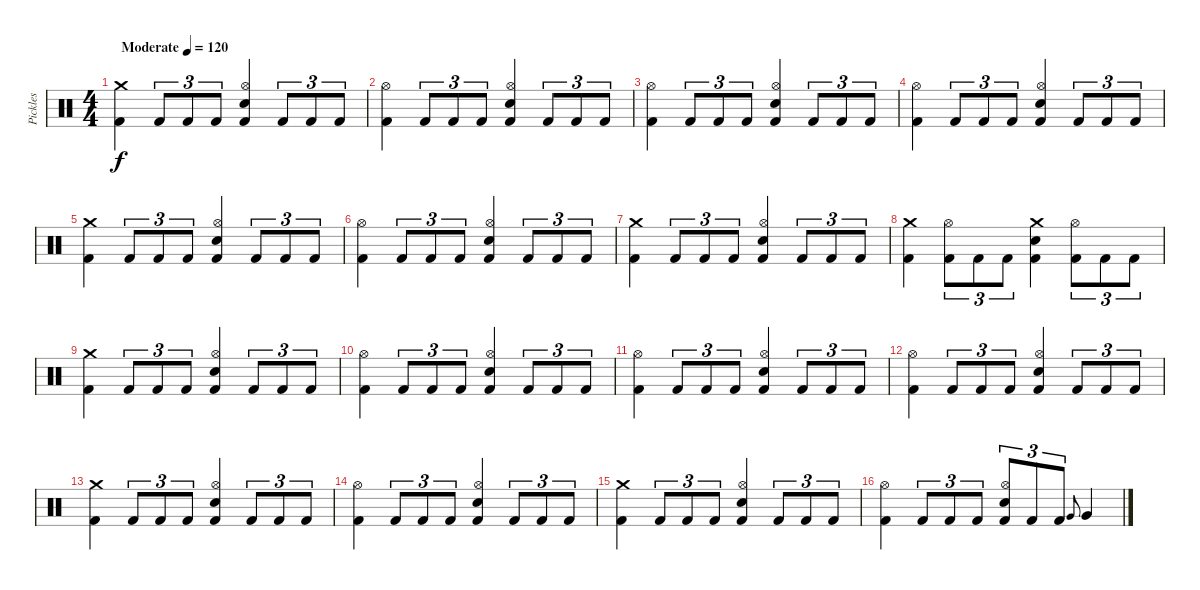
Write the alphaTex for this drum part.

\track ("Pickles" "Pickles") {instrument percussion}
\staff {score}
\articulation defaults
\ts (4 4)
\tempo (120 "Moderate")
\clef neutral
\ks c
("Crash medium (hit)" "Kick (hit) 2").4{dy f} "Kick (hit) 2".8{tu (3 2)} "Kick (hit) 2".8{tu (3 2)} "Kick (hit) 2".8{tu (3 2)} ("Hi-Hat (open)" "Electric Snare (hit)" "Kick (hit) 2").4 "Kick (hit) 2".8{tu (3 2)} "Kick (hit) 2".8{tu (3 2)} "Kick (hit) 2".8{tu (3 2)} |
("Hi-Hat (open)" "Kick (hit) 2").4 "Kick (hit) 2".8{tu (3 2)} "Kick (hit) 2".8{tu (3 2)} "Kick (hit) 2".8{tu (3 2)} ("Hi-Hat (open)" "Electric Snare (hit)" "Kick (hit) 2").4 "Kick (hit) 2".8{tu (3 2)} "Kick (hit) 2".8{tu (3 2)} "Kick (hit) 2".8{tu (3 2)} |
("Hi-Hat (open)" "Kick (hit) 2").4 "Kick (hit) 2".8{tu (3 2)} "Kick (hit) 2".8{tu (3 2)} "Kick (hit) 2".8{tu (3 2)} ("Hi-Hat (open)" "Electric Snare (hit)" "Kick (hit) 2").4 "Kick (hit) 2".8{tu (3 2)} "Kick (hit) 2".8{tu (3 2)} "Kick (hit) 2".8{tu (3 2)} |
("Hi-Hat (open)" "Kick (hit) 2").4 "Kick (hit) 2".8{tu (3 2)} "Kick (hit) 2".8{tu (3 2)} "Kick (hit) 2".8{tu (3 2)} ("Hi-Hat (open)" "Electric Snare (hit)" "Kick (hit) 2").4 "Kick (hit) 2".8{tu (3 2)} "Kick (hit) 2".8{tu (3 2)} "Kick (hit) 2".8{tu (3 2)} |
("Crash medium (hit)" "Kick (hit) 2").4 "Kick (hit) 2".8{tu (3 2)} "Kick (hit) 2".8{tu (3 2)} "Kick (hit) 2".8{tu (3 2)} ("Hi-Hat (open)" "Electric Snare (hit)" "Kick (hit) 2").4 "Kick (hit) 2".8{tu (3 2)} "Kick (hit) 2".8{tu (3 2)} "Kick (hit) 2".8{tu (3 2)} |
("Hi-Hat (open)" "Kick (hit) 2").4 "Kick (hit) 2".8{tu (3 2)} "Kick (hit) 2".8{tu (3 2)} "Kick (hit) 2".8{tu (3 2)} ("Hi-Hat (open)" "Electric Snare (hit)" "Kick (hit) 2").4 "Kick (hit) 2".8{tu (3 2)} "Kick (hit) 2".8{tu (3 2)} "Kick (hit) 2".8{tu (3 2)} |
("Crash medium (hit)" "Kick (hit) 2").4 "Kick (hit) 2".8{tu (3 2)} "Kick (hit) 2".8{tu (3 2)} "Kick (hit) 2".8{tu (3 2)} ("Hi-Hat (open)" "Electric Snare (hit)" "Kick (hit) 2").4 "Kick (hit) 2".8{tu (3 2)} "Kick (hit) 2".8{tu (3 2)} "Kick (hit) 2".8{tu (3 2)} |
("Crash medium (hit)" "Kick (hit) 2").4 ("Hi-Hat (open)" "Kick (hit) 2").8{tu (3 2)} "Kick (hit) 2".8{tu (3 2)} "Kick (hit) 2".8{tu (3 2)} ("Crash medium (hit)" "Electric Snare (hit)" "Kick (hit) 2").4 ("Hi-Hat (open)" "Kick (hit) 2").8{tu (3 2)} "Kick (hit) 2".8{tu (3 2)} "Kick (hit) 2".8{tu (3 2)} |
("Crash medium (hit)" "Kick (hit) 2").4 "Kick (hit) 2".8{tu (3 2)} "Kick (hit) 2".8{tu (3 2)} "Kick (hit) 2".8{tu (3 2)} ("Hi-Hat (open)" "Electric Snare (hit)" "Kick (hit) 2").4 "Kick (hit) 2".8{tu (3 2)} "Kick (hit) 2".8{tu (3 2)} "Kick (hit) 2".8{tu (3 2)} |
("Hi-Hat (open)" "Kick (hit) 2").4 "Kick (hit) 2".8{tu (3 2)} "Kick (hit) 2".8{tu (3 2)} "Kick (hit) 2".8{tu (3 2)} ("Hi-Hat (open)" "Electric Snare (hit)" "Kick (hit) 2").4 "Kick (hit) 2".8{tu (3 2)} "Kick (hit) 2".8{tu (3 2)} "Kick (hit) 2".8{tu (3 2)} |
("Hi-Hat (open)" "Kick (hit) 2").4 "Kick (hit) 2".8{tu (3 2)} "Kick (hit) 2".8{tu (3 2)} "Kick (hit) 2".8{tu (3 2)} ("Hi-Hat (open)" "Electric Snare (hit)" "Kick (hit) 2").4 "Kick (hit) 2".8{tu (3 2)} "Kick (hit) 2".8{tu (3 2)} "Kick (hit) 2".8{tu (3 2)} |
("Hi-Hat (open)" "Kick (hit) 2").4 "Kick (hit) 2".8{tu (3 2)} "Kick (hit) 2".8{tu (3 2)} "Kick (hit) 2".8{tu (3 2)} ("Hi-Hat (open)" "Electric Snare (hit)" "Kick (hit) 2").4 "Kick (hit) 2".8{tu (3 2)} "Kick (hit) 2".8{tu (3 2)} "Kick (hit) 2".8{tu (3 2)} |
("Crash medium (hit)" "Kick (hit) 2").4 "Kick (hit) 2".8{tu (3 2)} "Kick (hit) 2".8{tu (3 2)} "Kick (hit) 2".8{tu (3 2)} ("Hi-Hat (open)" "Electric Snare (hit)" "Kick (hit) 2").4 "Kick (hit) 2".8{tu (3 2)} "Kick (hit) 2".8{tu (3 2)} "Kick (hit) 2".8{tu (3 2)} |
("Hi-Hat (open)" "Kick (hit) 2").4 "Kick (hit) 2".8{tu (3 2)} "Kick (hit) 2".8{tu (3 2)} "Kick (hit) 2".8{tu (3 2)} ("Hi-Hat (open)" "Electric Snare (hit)" "Kick (hit) 2").4 "Kick (hit) 2".8{tu (3 2)} "Kick (hit) 2".8{tu (3 2)} "Kick (hit) 2".8{tu (3 2)} |
("Crash medium (hit)" "Kick (hit) 2").4 "Kick (hit) 2".8{tu (3 2)} "Kick (hit) 2".8{tu (3 2)} "Kick (hit) 2".8{tu (3 2)} ("Hi-Hat (open)" "Electric Snare (hit)" "Kick (hit) 2").4 "Kick (hit) 2".8{tu (3 2)} "Kick (hit) 2".8{tu (3 2)} "Kick (hit) 2".8{tu (3 2)} |
("Hi-Hat (open)" "Kick (hit) 2").4 "Kick (hit) 2".8{tu (3 2)} "Kick (hit) 2".8{tu (3 2)} "Kick (hit) 2".8{tu (3 2)} ("Hi-Hat (open)" "Electric Snare (hit)" "Kick (hit) 2").8{tu (3 2)} "Kick (hit) 2".8{tu (3 2)} "Kick (hit) 2".8{tu (3 2)} "Very Low Tom (hit)".8{gr onbeat} "Very Low Tom (hit)".4
